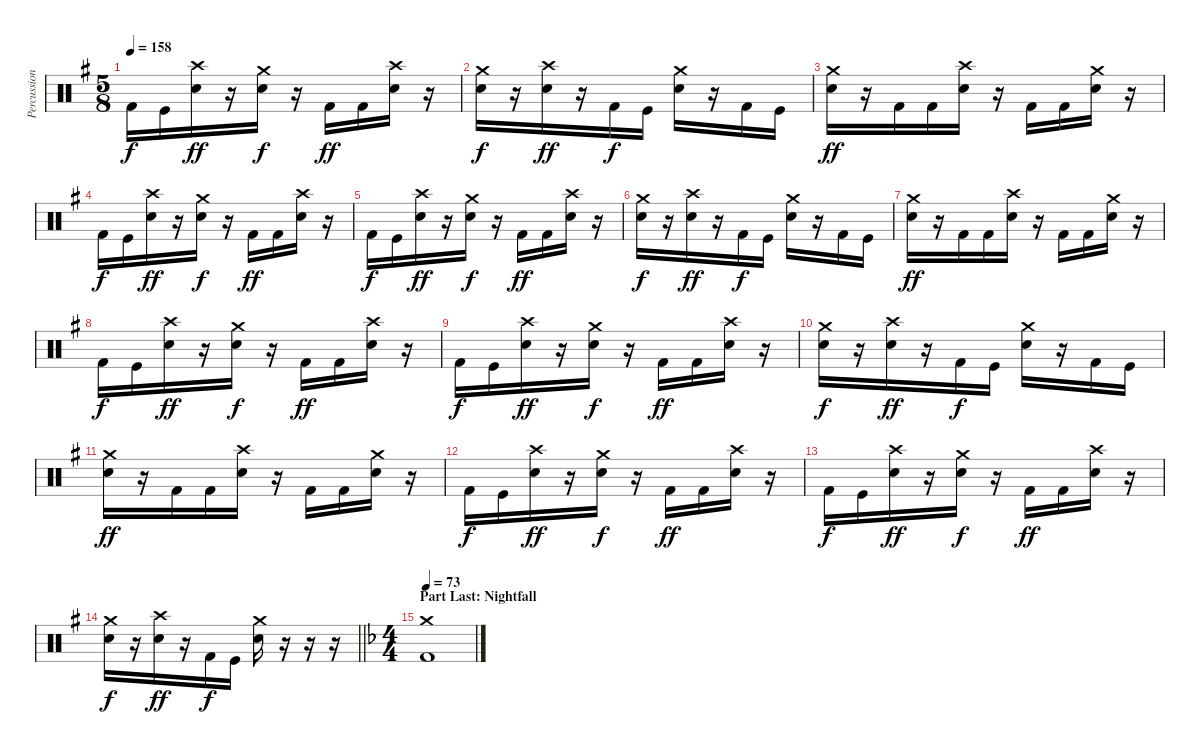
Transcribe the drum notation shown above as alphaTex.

\track ("Percussion" "Percussion") {instrument percussion}
\staff {score}
\articulation defaults
\ts (5 8)
\tempo 158
\clef neutral
\ks g "Kick (hit) 2".16{dy f} "Kick (hit)".16
("Crash high (hit)" "Electric Snare (hit)").16{dy ff} r.16 ("Crash medium (hit)" "Electric Snare (hit)").16{dy f} r.16 "Kick (hit) 2".16{dy ff} "Kick (hit) 2".16 ("Crash high (hit)" "Electric Snare (hit)").16 r.16 |
("Crash medium (hit)" "Electric Snare (hit)").16{dy f} r.16 ("Crash high (hit)" "Electric Snare (hit)").16{dy ff} r.16 "Kick (hit) 2".16{dy f} "Kick (hit)".16 ("Crash medium (hit)" "Electric Snare (hit)").16 r.16 "Kick (hit) 2".16 "Kick (hit)".16 |
("Crash medium (hit)" "Electric Snare (hit)").16{dy ff} r.16 "Kick (hit) 2".16 "Kick (hit) 2".16 ("Crash high (hit)" "Electric Snare (hit)").16 r.16 "Kick (hit) 2".16 "Kick (hit) 2".16 ("Crash medium (hit)" "Electric Snare (hit)").16 r.16 |
"Kick (hit) 2".16{dy f} "Kick (hit)".16 ("Crash high (hit)" "Electric Snare (hit)").16{dy ff} r.16 ("Crash medium (hit)" "Electric Snare (hit)").16{dy f} r.16 "Kick (hit) 2".16{dy ff} "Kick (hit) 2".16 ("Crash high (hit)" "Electric Snare (hit)").16 r.16 |
"Kick (hit) 2".16{dy f} "Kick (hit)".16 ("Crash high (hit)" "Electric Snare (hit)").16{dy ff} r.16 ("Crash medium (hit)" "Electric Snare (hit)").16{dy f} r.16 "Kick (hit) 2".16{dy ff} "Kick (hit) 2".16 ("Crash high (hit)" "Electric Snare (hit)").16 r.16 |
("Crash medium (hit)" "Electric Snare (hit)").16{dy f} r.16 ("Crash high (hit)" "Electric Snare (hit)").16{dy ff} r.16 "Kick (hit) 2".16{dy f} "Kick (hit)".16 ("Crash medium (hit)" "Electric Snare (hit)").16 r.16 "Kick (hit) 2".16 "Kick (hit)".16 |
("Crash medium (hit)" "Electric Snare (hit)").16{dy ff} r.16 "Kick (hit) 2".16 "Kick (hit) 2".16 ("Crash high (hit)" "Electric Snare (hit)").16 r.16 "Kick (hit) 2".16 "Kick (hit) 2".16 ("Crash medium (hit)" "Electric Snare (hit)").16 r.16 |
"Kick (hit) 2".16{dy f} "Kick (hit)".16 ("Crash high (hit)" "Electric Snare (hit)").16{dy ff} r.16 ("Crash medium (hit)" "Electric Snare (hit)").16{dy f} r.16 "Kick (hit) 2".16{dy ff} "Kick (hit) 2".16 ("Crash high (hit)" "Electric Snare (hit)").16 r.16 |
"Kick (hit) 2".16{dy f} "Kick (hit)".16 ("Crash high (hit)" "Electric Snare (hit)").16{dy ff} r.16 ("Crash medium (hit)" "Electric Snare (hit)").16{dy f} r.16 "Kick (hit) 2".16{dy ff} "Kick (hit) 2".16 ("Crash high (hit)" "Electric Snare (hit)").16 r.16 |
("Crash medium (hit)" "Electric Snare (hit)").16{dy f} r.16 ("Crash high (hit)" "Electric Snare (hit)").16{dy ff} r.16 "Kick (hit) 2".16{dy f} "Kick (hit)".16 ("Crash medium (hit)" "Electric Snare (hit)").16 r.16 "Kick (hit) 2".16 "Kick (hit)".16 |
("Crash medium (hit)" "Electric Snare (hit)").16{dy ff} r.16 "Kick (hit) 2".16 "Kick (hit) 2".16 ("Crash high (hit)" "Electric Snare (hit)").16 r.16 "Kick (hit) 2".16 "Kick (hit) 2".16 ("Crash medium (hit)" "Electric Snare (hit)").16 r.16 |
"Kick (hit) 2".16{dy f} "Kick (hit)".16 ("Crash high (hit)" "Electric Snare (hit)").16{dy ff} r.16 ("Crash medium (hit)" "Electric Snare (hit)").16{dy f} r.16 "Kick (hit) 2".16{dy ff} "Kick (hit) 2".16 ("Crash high (hit)" "Electric Snare (hit)").16 r.16 |
"Kick (hit) 2".16{dy f} "Kick (hit)".16 ("Crash high (hit)" "Electric Snare (hit)").16{dy ff} r.16 ("Crash medium (hit)" "Electric Snare (hit)").16{dy f} r.16 "Kick (hit) 2".16{dy ff} "Kick (hit) 2".16 ("Crash high (hit)" "Electric Snare (hit)").16 r.16 |
\barLineRight lightlight
("Crash medium (hit)" "Electric Snare (hit)").16{dy f} r.16 ("Crash high (hit)" "Electric Snare (hit)").16{dy ff} r.16 "Kick (hit) 2".16{dy f} "Kick (hit)".16 ("Crash medium (hit)" "Electric Snare (hit)").16 r.16 r.16 r.16 |
\ts (4 4)
\section ("" "Part Last: Nightfall")
\tempo 73
\ks f
("Crash medium (hit)" "Kick (hit) 2").1
